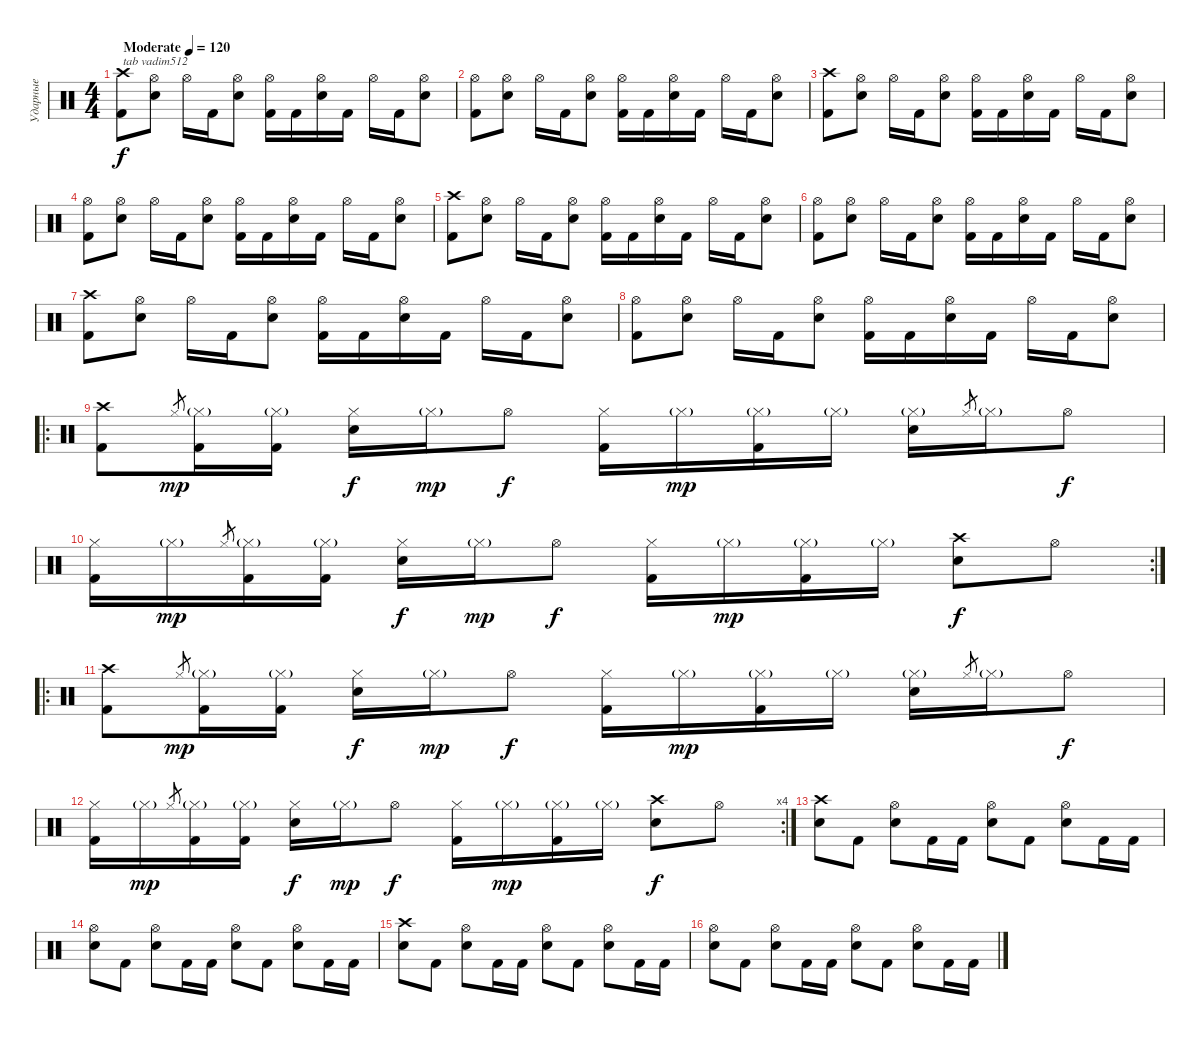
\track ("Ударные" "Ударные") {instrument percussion}
\staff {score}
\articulation defaults
\ts (4 4)
\tempo (120 "Moderate")
\clef neutral
\ks c
("Kick (hit) 2" "Crash high (hit)").8{txt "tab vadim512" dy f} ("Electric Snare (hit)" "Hi-Hat (open)").8 "Hi-Hat (open)".16 "Kick (hit) 2".16 ("Electric Snare (hit)" "Hi-Hat (open)").8 ("Kick (hit) 2" "Hi-Hat (open)").16 "Kick (hit) 2".16 ("Electric Snare (hit)" "Hi-Hat (open)").16 "Kick (hit) 2".16 "Hi-Hat (open)".16 "Kick (hit) 2".16 ("Electric Snare (hit)" "Hi-Hat (open)").8 |
("Kick (hit) 2" "Hi-Hat (open)").8 ("Electric Snare (hit)" "Hi-Hat (open)").8 "Hi-Hat (open)".16 "Kick (hit) 2".16 ("Electric Snare (hit)" "Hi-Hat (open)").8 ("Kick (hit) 2" "Hi-Hat (open)").16 "Kick (hit) 2".16 ("Electric Snare (hit)" "Hi-Hat (open)").16 "Kick (hit) 2".16 "Hi-Hat (open)".16 "Kick (hit) 2".16 ("Electric Snare (hit)" "Hi-Hat (open)").8 |
("Kick (hit) 2" "Crash high (hit)").8 ("Electric Snare (hit)" "Hi-Hat (open)").8 "Hi-Hat (open)".16 "Kick (hit) 2".16 ("Electric Snare (hit)" "Hi-Hat (open)").8 ("Kick (hit) 2" "Hi-Hat (open)").16 "Kick (hit) 2".16 ("Electric Snare (hit)" "Hi-Hat (open)").16 "Kick (hit) 2".16 "Hi-Hat (open)".16 "Kick (hit) 2".16 ("Electric Snare (hit)" "Hi-Hat (open)").8 |
("Kick (hit) 2" "Hi-Hat (open)").8 ("Electric Snare (hit)" "Hi-Hat (open)").8 "Hi-Hat (open)".16 "Kick (hit) 2".16 ("Electric Snare (hit)" "Hi-Hat (open)").8 ("Kick (hit) 2" "Hi-Hat (open)").16 "Kick (hit) 2".16 ("Electric Snare (hit)" "Hi-Hat (open)").16 "Kick (hit) 2".16 "Hi-Hat (open)".16 "Kick (hit) 2".16 ("Electric Snare (hit)" "Hi-Hat (open)").8 |
("Kick (hit) 2" "Crash high (hit)").8 ("Electric Snare (hit)" "Hi-Hat (open)").8 "Hi-Hat (open)".16 "Kick (hit) 2".16 ("Electric Snare (hit)" "Hi-Hat (open)").8 ("Kick (hit) 2" "Hi-Hat (open)").16 "Kick (hit) 2".16 ("Electric Snare (hit)" "Hi-Hat (open)").16 "Kick (hit) 2".16 "Hi-Hat (open)".16 "Kick (hit) 2".16 ("Electric Snare (hit)" "Hi-Hat (open)").8 |
("Kick (hit) 2" "Hi-Hat (open)").8 ("Electric Snare (hit)" "Hi-Hat (open)").8 "Hi-Hat (open)".16 "Kick (hit) 2".16 ("Electric Snare (hit)" "Hi-Hat (open)").8 ("Kick (hit) 2" "Hi-Hat (open)").16 "Kick (hit) 2".16 ("Electric Snare (hit)" "Hi-Hat (open)").16 "Kick (hit) 2".16 "Hi-Hat (open)".16 "Kick (hit) 2".16 ("Electric Snare (hit)" "Hi-Hat (open)").8 |
("Kick (hit) 2" "Crash high (hit)").8 ("Electric Snare (hit)" "Hi-Hat (open)").8 "Hi-Hat (open)".16 "Kick (hit) 2".16 ("Electric Snare (hit)" "Hi-Hat (open)").8 ("Kick (hit) 2" "Hi-Hat (open)").16 "Kick (hit) 2".16 ("Electric Snare (hit)" "Hi-Hat (open)").16 "Kick (hit) 2".16 "Hi-Hat (open)".16 "Kick (hit) 2".16 ("Electric Snare (hit)" "Hi-Hat (open)").8 |
("Kick (hit) 2" "Hi-Hat (open)").8 ("Electric Snare (hit)" "Hi-Hat (open)").8 "Hi-Hat (open)".16 "Kick (hit) 2".16 ("Electric Snare (hit)" "Hi-Hat (open)").8 ("Kick (hit) 2" "Hi-Hat (open)").16 "Kick (hit) 2".16 ("Electric Snare (hit)" "Hi-Hat (open)").16 "Kick (hit) 2".16 "Hi-Hat (open)".16 "Kick (hit) 2".16 ("Electric Snare (hit)" "Hi-Hat (open)").8 |
\ro
("Kick (hit) 2" "Crash high (hit)").8 "Hi-Hat (closed)".8{gr dy mp} ("Kick (hit) 2" "Hi-Hat (closed)"{g}).16 ("Kick (hit) 2" "Hi-Hat (closed)"{g}).16 ("Electric Snare (hit)" "Hi-Hat (closed)").16{dy f} "Hi-Hat (closed)"{g}.16{dy mp} "Hi-Hat (open)".8{dy f} ("Kick (hit) 2" "Hi-Hat (closed)").16 "Hi-Hat (closed)"{g}.16{dy mp} ("Kick (hit) 2" "Hi-Hat (closed)"{g}).16 "Hi-Hat (closed)"{g}.16 ("Electric Snare (hit)" "Hi-Hat (closed)"{g}).16 "Hi-Hat (closed)".8{gr} "Hi-Hat (closed)"{g}.16 "Hi-Hat (open)".8{dy f} |
\rc 2
("Kick (hit) 2" "Hi-Hat (closed)").16 "Hi-Hat (closed)"{g}.16{dy mp} "Hi-Hat (closed)".8{gr} ("Kick (hit) 2" "Hi-Hat (closed)"{g}).16 ("Kick (hit) 2" "Hi-Hat (closed)"{g}).16 ("Electric Snare (hit)" "Hi-Hat (closed)").16{dy f} "Hi-Hat (closed)"{g}.16{dy mp} "Hi-Hat (open)".8{dy f} ("Kick (hit) 2" "Hi-Hat (closed)").16 "Hi-Hat (closed)"{g}.16{dy mp} ("Kick (hit) 2" "Hi-Hat (closed)"{g}).16 "Hi-Hat (closed)"{g}.16 ("Electric Snare (hit)" "Crash high (hit)").8{dy f} "Hi-Hat (open)".8 |
\ro
("Kick (hit) 2" "Crash high (hit)").8 "Hi-Hat (closed)".8{gr dy mp} ("Kick (hit) 2" "Hi-Hat (closed)"{g}).16 ("Kick (hit) 2" "Hi-Hat (closed)"{g}).16 ("Electric Snare (hit)" "Hi-Hat (closed)").16{dy f} "Hi-Hat (closed)"{g}.16{dy mp} "Hi-Hat (open)".8{dy f} ("Kick (hit) 2" "Hi-Hat (closed)").16 "Hi-Hat (closed)"{g}.16{dy mp} ("Kick (hit) 2" "Hi-Hat (closed)"{g}).16 "Hi-Hat (closed)"{g}.16 ("Electric Snare (hit)" "Hi-Hat (closed)"{g}).16 "Hi-Hat (closed)".8{gr} "Hi-Hat (closed)"{g}.16 "Hi-Hat (open)".8{dy f} |
\rc 4
("Kick (hit) 2" "Hi-Hat (closed)").16 "Hi-Hat (closed)"{g}.16{dy mp} "Hi-Hat (closed)".8{gr} ("Kick (hit) 2" "Hi-Hat (closed)"{g}).16 ("Kick (hit) 2" "Hi-Hat (closed)"{g}).16 ("Electric Snare (hit)" "Hi-Hat (closed)").16{dy f} "Hi-Hat (closed)"{g}.16{dy mp} "Hi-Hat (open)".8{dy f} ("Kick (hit) 2" "Hi-Hat (closed)").16 "Hi-Hat (closed)"{g}.16{dy mp} ("Kick (hit) 2" "Hi-Hat (closed)"{g}).16 "Hi-Hat (closed)"{g}.16 ("Electric Snare (hit)" "Crash high (hit)").8{dy f} "Hi-Hat (open)".8 |
("Electric Snare (hit)" "Crash high (hit)").8 "Kick (hit) 2".8 ("Electric Snare (hit)" "Hi-Hat (open)").8 "Kick (hit) 2".16 "Kick (hit) 2".16 ("Electric Snare (hit)" "Hi-Hat (open)").8 "Kick (hit) 2".8 ("Electric Snare (hit)" "Hi-Hat (open)").8 "Kick (hit) 2".16 "Kick (hit) 2".16 |
("Electric Snare (hit)" "Hi-Hat (open)").8 "Kick (hit) 2".8 ("Electric Snare (hit)" "Hi-Hat (open)").8 "Kick (hit) 2".16 "Kick (hit) 2".16 ("Electric Snare (hit)" "Hi-Hat (open)").8 "Kick (hit) 2".8 ("Electric Snare (hit)" "Hi-Hat (open)").8 "Kick (hit) 2".16 "Kick (hit) 2".16 |
("Electric Snare (hit)" "Crash high (hit)").8 "Kick (hit) 2".8 ("Electric Snare (hit)" "Hi-Hat (open)").8 "Kick (hit) 2".16 "Kick (hit) 2".16 ("Electric Snare (hit)" "Hi-Hat (open)").8 "Kick (hit) 2".8 ("Electric Snare (hit)" "Hi-Hat (open)").8 "Kick (hit) 2".16 "Kick (hit) 2".16 |
("Electric Snare (hit)" "Hi-Hat (open)").8 "Kick (hit) 2".8 ("Electric Snare (hit)" "Hi-Hat (open)").8 "Kick (hit) 2".16 "Kick (hit) 2".16 ("Electric Snare (hit)" "Hi-Hat (open)").8 "Kick (hit) 2".8 ("Electric Snare (hit)" "Hi-Hat (open)").8 "Kick (hit) 2".16 "Kick (hit) 2".16
